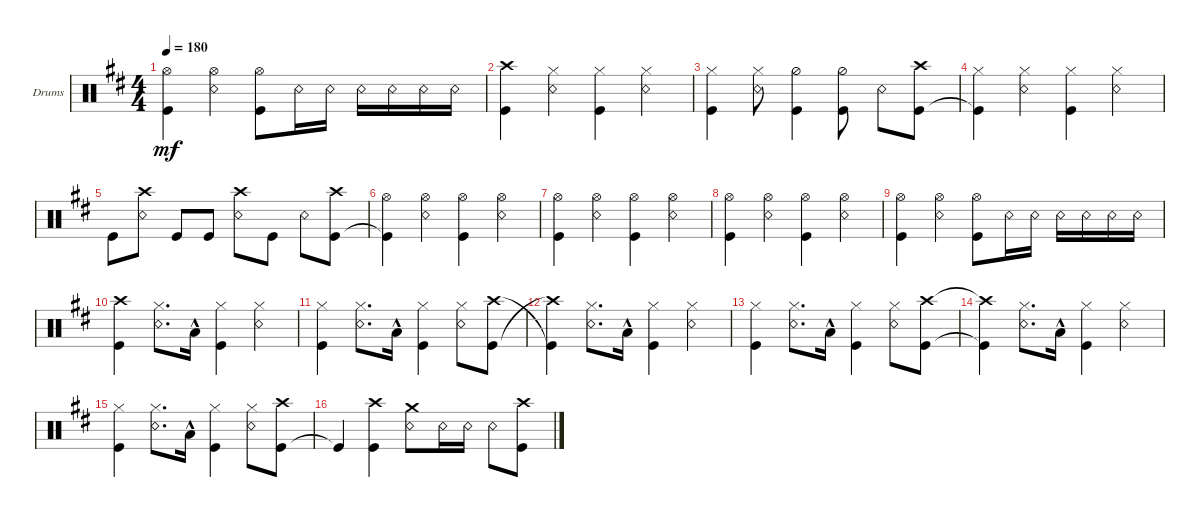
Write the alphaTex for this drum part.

\defaultSystemsLayout 4
\bracketExtendMode groupsimilarinstruments
\firstSystemTrackNameOrientation horizontal
\otherSystemsTrackNameOrientation horizontal
\track ("Drumkit" "Drums") {instrument percussion}
\staff {score}
\articulation defaults
\ts (4 4)
\tempo 180
\clef neutral
\ks bminor
("Kick (hit)" "Hi-Hat (open)").4{dy mf} ("Hi-Hat (open)" "Snare (rim shot)").4 ("Hi-Hat (open)" "Kick (hit)").8 "Snare (rim shot)".16 "Snare (rim shot)".16 "Snare (rim shot)".16 "Snare (rim shot)".16 "Snare (rim shot)".16 "Snare (rim shot)".16 |
("Kick (hit)" "Crash high (hit)").4 ("Hi-Hat (closed)" "Snare (rim shot)").4 ("Hi-Hat (closed)" "Kick (hit)").4 ("Hi-Hat (closed)" "Snare (rim shot)").4 |
("Kick (hit)" "Hi-Hat (closed)").4 ("Hi-Hat (closed)" "Snare (rim shot)").8 ("Kick (hit)" "Hi-Hat (half)").4 ("Hi-Hat (half)" "Kick (hit)").8 "Snare (rim shot)".8 ("Kick (hit)" "Crash high (hit)").8 |
("Kick (hit)"{t} "Hi-Hat (closed)").4 ("Hi-Hat (closed)" "Snare (rim shot)").4 ("Hi-Hat (closed)" "Kick (hit)").4 ("Hi-Hat (closed)" "Snare (rim shot)").4 |
"Kick (hit)".8 ("Snare (rim shot)" "Crash high (hit)").8 "Kick (hit)".8 "Kick (hit)".8 ("Snare (rim shot)" "Crash high (hit)").8 "Kick (hit)".8 "Snare (rim shot)".8 ("Kick (hit)" "Crash high (hit)").8 |
("Kick (hit)"{t} "Hi-Hat (open)").4 ("Hi-Hat (open)" "Snare (rim shot)").4 ("Hi-Hat (open)" "Kick (hit)").4 ("Hi-Hat (open)" "Snare (rim shot)").4 |
("Kick (hit)" "Hi-Hat (open)").4 ("Hi-Hat (open)" "Snare (rim shot)").4 ("Hi-Hat (open)" "Kick (hit)").4 ("Hi-Hat (open)" "Snare (rim shot)").4 |
("Kick (hit)" "Hi-Hat (open)").4 ("Hi-Hat (open)" "Snare (rim shot)").4 ("Hi-Hat (open)" "Kick (hit)").4 ("Hi-Hat (open)" "Snare (rim shot)").4 |
("Kick (hit)" "Hi-Hat (open)").4 ("Hi-Hat (open)" "Snare (rim shot)").4 ("Hi-Hat (open)" "Kick (hit)").8 "Snare (rim shot)".16 "Snare (rim shot)".16 "Snare (rim shot)".16 "Snare (rim shot)".16 "Snare (rim shot)".16 "Snare (rim shot)".16 |
("Kick (hit)" "Crash high (hit)").4 ("Hi-Hat (closed)" "Snare (rim shot)").8{d} "Low Tom (hit)"{hac}.16 ("Hi-Hat (closed)" "Kick (hit)").4 ("Hi-Hat (closed)" "Snare (rim shot)").4 |
("Kick (hit)" "Hi-Hat (closed)").4 ("Hi-Hat (closed)" "Snare (rim shot)").8{d} "Low Tom (hit)"{hac}.16 ("Hi-Hat (closed)" "Kick (hit)").4 ("Hi-Hat (closed)" "Snare (rim shot)").8 ("Crash high (hit)" "Kick (hit)").8 |
("Kick (hit)"{t} "Crash high (hit)"{t}).4 ("Hi-Hat (closed)" "Snare (rim shot)").8{d} "Low Tom (hit)"{hac}.16 ("Hi-Hat (closed)" "Kick (hit)").4 ("Hi-Hat (closed)" "Snare (rim shot)").4 |
("Kick (hit)" "Hi-Hat (closed)").4 ("Hi-Hat (closed)" "Snare (rim shot)").8{d} "Low Tom (hit)"{hac}.16 ("Hi-Hat (closed)" "Kick (hit)").4 ("Hi-Hat (closed)" "Snare (rim shot)").8 ("Kick (hit)" "Crash high (hit)").8 |
("Kick (hit)"{t} "Crash high (hit)"{t}).4 ("Hi-Hat (closed)" "Snare (rim shot)").8{d} "Low Tom (hit)"{hac}.16 ("Hi-Hat (closed)" "Kick (hit)").4 ("Hi-Hat (closed)" "Snare (rim shot)").4 |
("Kick (hit)" "Hi-Hat (closed)").4 ("Hi-Hat (closed)" "Snare (rim shot)").8{d} "Low Tom (hit)"{hac}.16 ("Hi-Hat (closed)" "Kick (hit)").4 ("Hi-Hat (closed)" "Snare (rim shot)").8 ("Kick (hit)" "Crash high (hit)").8 |
"Kick (hit)"{t}.4 ("Kick (hit)" "Crash high (hit)").4 ("Crash medium (hit)" "Snare (rim shot)").8 "Snare (rim shot)".16 "Snare (rim shot)".16 "Snare (rim shot)".8 ("Kick (hit)" "Crash high (hit)").8
